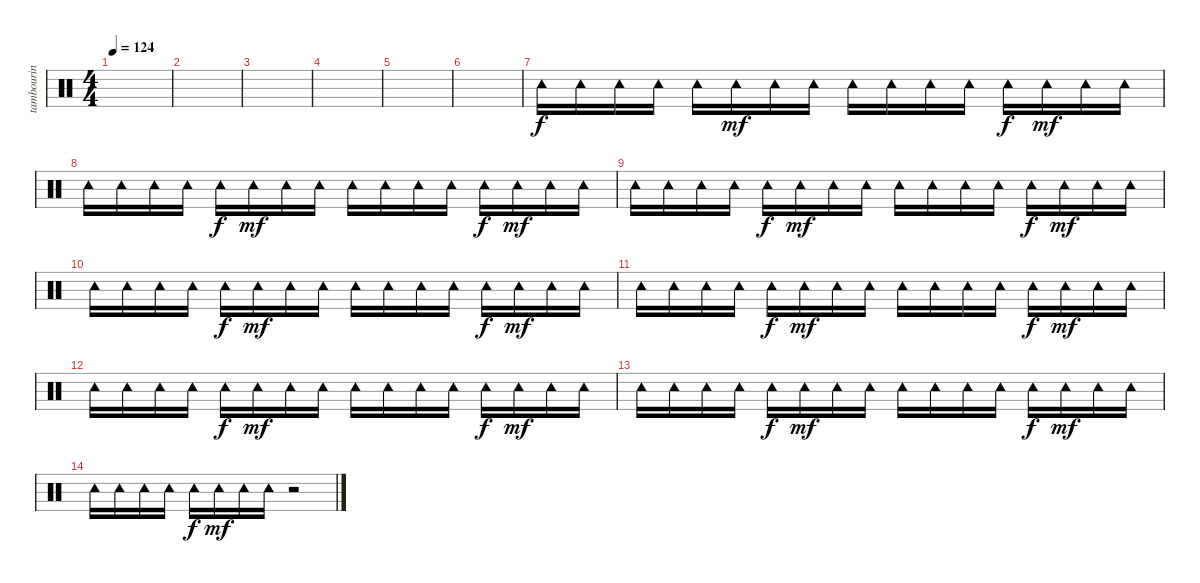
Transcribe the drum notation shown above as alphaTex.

\track ("tambourin" "tambourin") {instrument percussion}
\staff {score}
\articulation defaults
\ts (4 4)
\tempo 124
\clef neutral
\ks c
|
|
|
|
|
|
"Tambourine (hit)".16 "Tambourine (hit)".16 "Tambourine (hit)".16 "Tambourine (hit)".16 "Tambourine (hit)".16{dy f} "Tambourine (hit)".16{dy mf} "Tambourine (hit)".16 "Tambourine (hit)".16 "Tambourine (hit)".16 "Tambourine (hit)".16 "Tambourine (hit)".16 "Tambourine (hit)".16 "Tambourine (hit)".16{dy f} "Tambourine (hit)".16{dy mf} "Tambourine (hit)".16 "Tambourine (hit)".16 |
"Tambourine (hit)".16 "Tambourine (hit)".16 "Tambourine (hit)".16 "Tambourine (hit)".16 "Tambourine (hit)".16{dy f} "Tambourine (hit)".16{dy mf} "Tambourine (hit)".16 "Tambourine (hit)".16 "Tambourine (hit)".16 "Tambourine (hit)".16 "Tambourine (hit)".16 "Tambourine (hit)".16 "Tambourine (hit)".16{dy f} "Tambourine (hit)".16{dy mf} "Tambourine (hit)".16 "Tambourine (hit)".16 |
"Tambourine (hit)".16 "Tambourine (hit)".16 "Tambourine (hit)".16 "Tambourine (hit)".16 "Tambourine (hit)".16{dy f} "Tambourine (hit)".16{dy mf} "Tambourine (hit)".16 "Tambourine (hit)".16 "Tambourine (hit)".16 "Tambourine (hit)".16 "Tambourine (hit)".16 "Tambourine (hit)".16 "Tambourine (hit)".16{dy f} "Tambourine (hit)".16{dy mf} "Tambourine (hit)".16 "Tambourine (hit)".16 |
"Tambourine (hit)".16 "Tambourine (hit)".16 "Tambourine (hit)".16 "Tambourine (hit)".16 "Tambourine (hit)".16{dy f} "Tambourine (hit)".16{dy mf} "Tambourine (hit)".16 "Tambourine (hit)".16 "Tambourine (hit)".16 "Tambourine (hit)".16 "Tambourine (hit)".16 "Tambourine (hit)".16 "Tambourine (hit)".16{dy f} "Tambourine (hit)".16{dy mf} "Tambourine (hit)".16 "Tambourine (hit)".16 |
"Tambourine (hit)".16 "Tambourine (hit)".16 "Tambourine (hit)".16 "Tambourine (hit)".16 "Tambourine (hit)".16{dy f} "Tambourine (hit)".16{dy mf} "Tambourine (hit)".16 "Tambourine (hit)".16 "Tambourine (hit)".16 "Tambourine (hit)".16 "Tambourine (hit)".16 "Tambourine (hit)".16 "Tambourine (hit)".16{dy f} "Tambourine (hit)".16{dy mf} "Tambourine (hit)".16 "Tambourine (hit)".16 |
"Tambourine (hit)".16 "Tambourine (hit)".16 "Tambourine (hit)".16 "Tambourine (hit)".16 "Tambourine (hit)".16{dy f} "Tambourine (hit)".16{dy mf} "Tambourine (hit)".16 "Tambourine (hit)".16 "Tambourine (hit)".16 "Tambourine (hit)".16 "Tambourine (hit)".16 "Tambourine (hit)".16 "Tambourine (hit)".16{dy f} "Tambourine (hit)".16{dy mf} "Tambourine (hit)".16 "Tambourine (hit)".16 |
"Tambourine (hit)".16 "Tambourine (hit)".16 "Tambourine (hit)".16 "Tambourine (hit)".16 "Tambourine (hit)".16{dy f} "Tambourine (hit)".16{dy mf} "Tambourine (hit)".16 "Tambourine (hit)".16 "Tambourine (hit)".16 "Tambourine (hit)".16 "Tambourine (hit)".16 "Tambourine (hit)".16 "Tambourine (hit)".16{dy f} "Tambourine (hit)".16{dy mf} "Tambourine (hit)".16 "Tambourine (hit)".16 |
"Tambourine (hit)".16 "Tambourine (hit)".16 "Tambourine (hit)".16 "Tambourine (hit)".16 "Tambourine (hit)".16{dy f} "Tambourine (hit)".16{dy mf} "Tambourine (hit)".16 "Tambourine (hit)".16 r.2
